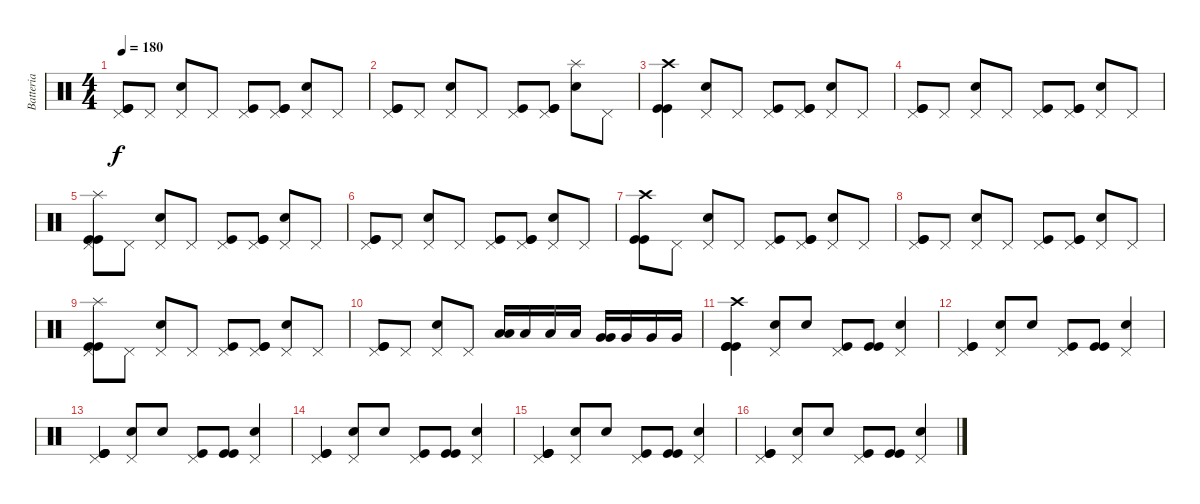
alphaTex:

\track ("Batteria" "Batteria") {instrument percussion}
\staff {score}
\articulation defaults
\ts (4 4)
\tempo 180
\clef neutral
\ks c
("Kick (hit)" "Kick (hit)" "Pedal Hi-Hat (hit)").8{dy f} "Pedal Hi-Hat (hit)".8 ("Snare (hit) 2" "Pedal Hi-Hat (hit)").8 "Pedal Hi-Hat (hit)".8 ("Kick (hit)" "Pedal Hi-Hat (hit)").8 ("Kick (hit)" "Kick (hit)" "Pedal Hi-Hat (hit)").8 ("Snare (hit) 2" "Pedal Hi-Hat (hit)").8 "Pedal Hi-Hat (hit)".8 |
("Pedal Hi-Hat (hit)" "Kick (hit)" "Kick (hit)").8 "Pedal Hi-Hat (hit)".8 ("Snare (hit) 2" "Pedal Hi-Hat (hit)").8 "Pedal Hi-Hat (hit)".8 ("Kick (hit)" "Pedal Hi-Hat (hit)").8 ("Kick (hit)" "Kick (hit)" "Pedal Hi-Hat (hit)").8 ("Snare (hit) 2" "Splash (hit)").8 "Pedal Hi-Hat (hit)".8 |
("Kick (hit)" "Kick (hit)" "Crash high (hit)").4 ("Snare (hit) 2" "Pedal Hi-Hat (hit)").8 "Pedal Hi-Hat (hit)".8 ("Kick (hit)" "Pedal Hi-Hat (hit)").8 ("Kick (hit)" "Kick (hit)" "Pedal Hi-Hat (hit)").8 ("Snare (hit) 2" "Pedal Hi-Hat (hit)").8 "Pedal Hi-Hat (hit)".8 |
("Kick (hit)" "Kick (hit)" "Pedal Hi-Hat (hit)").8 "Pedal Hi-Hat (hit)".8 ("Snare (hit) 2" "Pedal Hi-Hat (hit)").8 "Pedal Hi-Hat (hit)".8 ("Kick (hit)" "Pedal Hi-Hat (hit)").8 ("Kick (hit)" "Kick (hit)" "Pedal Hi-Hat (hit)").8 ("Snare (hit) 2" "Pedal Hi-Hat (hit)").8 "Pedal Hi-Hat (hit)".8 |
("Pedal Hi-Hat (hit)" "Kick (hit)" "Kick (hit)" "Splash (hit)").8 "Pedal Hi-Hat (hit)".8 ("Snare (hit) 2" "Pedal Hi-Hat (hit)").8 "Pedal Hi-Hat (hit)".8 ("Kick (hit)" "Pedal Hi-Hat (hit)").8 ("Kick (hit)" "Kick (hit)" "Pedal Hi-Hat (hit)").8 ("Snare (hit) 2" "Pedal Hi-Hat (hit)").8 "Pedal Hi-Hat (hit)".8 |
("Pedal Hi-Hat (hit)" "Kick (hit)" "Kick (hit)").8 "Pedal Hi-Hat (hit)".8 ("Snare (hit) 2" "Pedal Hi-Hat (hit)").8 "Pedal Hi-Hat (hit)".8 ("Kick (hit)" "Pedal Hi-Hat (hit)").8 ("Kick (hit)" "Kick (hit)" "Pedal Hi-Hat (hit)").8 ("Snare (hit) 2" "Pedal Hi-Hat (hit)").8 "Pedal Hi-Hat (hit)".8 |
("Kick (hit)" "Kick (hit)" "Crash high (hit)").8 "Pedal Hi-Hat (hit)".8 ("Snare (hit) 2" "Pedal Hi-Hat (hit)").8 "Pedal Hi-Hat (hit)".8 ("Kick (hit)" "Pedal Hi-Hat (hit)").8 ("Kick (hit)" "Kick (hit)" "Pedal Hi-Hat (hit)").8 ("Snare (hit) 2" "Pedal Hi-Hat (hit)").8 "Pedal Hi-Hat (hit)".8 |
("Pedal Hi-Hat (hit)" "Kick (hit)" "Kick (hit)").8 "Pedal Hi-Hat (hit)".8 ("Snare (hit) 2" "Pedal Hi-Hat (hit)").8 "Pedal Hi-Hat (hit)".8 ("Kick (hit)" "Pedal Hi-Hat (hit)").8 ("Kick (hit)" "Kick (hit)" "Pedal Hi-Hat (hit)").8 ("Snare (hit) 2" "Pedal Hi-Hat (hit)").8 "Pedal Hi-Hat (hit)".8 |
("Kick (hit)" "Kick (hit)" "Pedal Hi-Hat (hit)" "Splash (hit)").8 "Pedal Hi-Hat (hit)".8 ("Snare (hit) 2" "Pedal Hi-Hat (hit)").8 "Pedal Hi-Hat (hit)".8 ("Kick (hit)" "Pedal Hi-Hat (hit)").8 ("Kick (hit)" "Kick (hit)" "Pedal Hi-Hat (hit)").8 ("Snare (hit) 2" "Pedal Hi-Hat (hit)").8 "Pedal Hi-Hat (hit)".8 |
("Pedal Hi-Hat (hit)" "Kick (hit)" "Kick (hit)").8 "Pedal Hi-Hat (hit)".8 ("Snare (hit) 2" "Pedal Hi-Hat (hit)").8 "Pedal Hi-Hat (hit)".8 ("Low Tom (hit)" "Low Tom (hit)").16 "Low Tom (hit)".16 "Low Tom (hit)".16 "Low Tom (hit)".16 ("Very Low Tom (hit)" "Very Low Tom (hit)").16 "Very Low Tom (hit)".16 "Very Low Tom (hit)".16 "Very Low Tom (hit)".16 |
("Kick (hit)" "Kick (hit)" "Kick (hit)" "Crash high (hit)").4 ("Electric Snare (hit)" "Pedal Hi-Hat (hit)").8 "Electric Snare (hit)".8 ("Kick (hit)" "Pedal Hi-Hat (hit)").8 ("Kick (hit)" "Kick (hit)").8 ("Electric Snare (hit)" "Pedal Hi-Hat (hit)").4 |
("Pedal Hi-Hat (hit)" "Kick (hit)" "Kick (hit)").4 ("Electric Snare (hit)" "Pedal Hi-Hat (hit)").8 "Electric Snare (hit)".8 ("Kick (hit)" "Pedal Hi-Hat (hit)").8 ("Kick (hit)" "Kick (hit)").8 ("Electric Snare (hit)" "Pedal Hi-Hat (hit)").4 |
("Kick (hit)" "Pedal Hi-Hat (hit)" "Kick (hit)" "Kick (hit)").4 ("Electric Snare (hit)" "Pedal Hi-Hat (hit)").8 "Electric Snare (hit)".8 ("Kick (hit)" "Pedal Hi-Hat (hit)").8 ("Kick (hit)" "Kick (hit)").8 ("Electric Snare (hit)" "Pedal Hi-Hat (hit)").4 |
("Pedal Hi-Hat (hit)" "Kick (hit)" "Kick (hit)").4 ("Electric Snare (hit)" "Pedal Hi-Hat (hit)").8 "Electric Snare (hit)".8 ("Kick (hit)" "Pedal Hi-Hat (hit)").8 ("Kick (hit)" "Kick (hit)").8 ("Electric Snare (hit)" "Pedal Hi-Hat (hit)").4 |
("Kick (hit)" "Pedal Hi-Hat (hit)" "Kick (hit)" "Kick (hit)").4 ("Electric Snare (hit)" "Pedal Hi-Hat (hit)").8 "Electric Snare (hit)".8 ("Kick (hit)" "Pedal Hi-Hat (hit)").8 ("Kick (hit)" "Kick (hit)").8 ("Electric Snare (hit)" "Pedal Hi-Hat (hit)").4 |
("Pedal Hi-Hat (hit)" "Kick (hit)" "Kick (hit)").4 ("Electric Snare (hit)" "Pedal Hi-Hat (hit)").8 "Electric Snare (hit)".8 ("Kick (hit)" "Pedal Hi-Hat (hit)").8 ("Kick (hit)" "Kick (hit)").8 ("Electric Snare (hit)" "Pedal Hi-Hat (hit)").4
